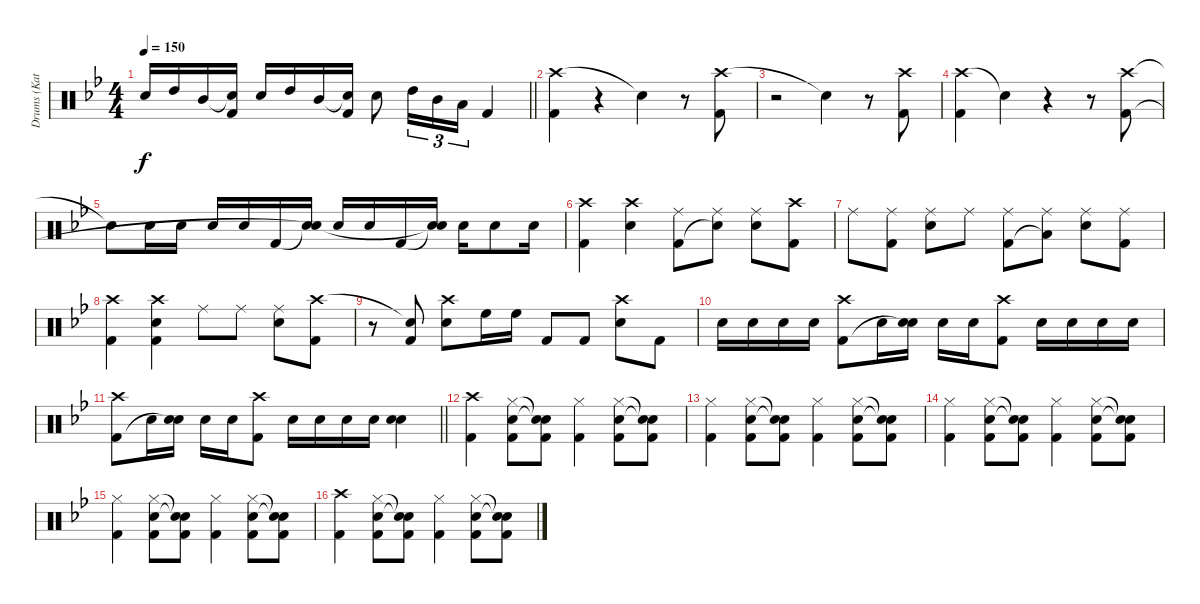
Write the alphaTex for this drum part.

\track ("Drums (Katsuji)" "Drums (Kat") {instrument percussion}
\staff {score}
\articulation defaults
\ts (4 4)
\tempo 150
\clef neutral
\barLineRight lightlight
\ks bb "Snare (hit) 2".16{dy f} "High Tom (hit)".16 "Mid Tom (hit)".16
("Snare (hit)"{t} "Kick (hit) 2").16 "Snare (hit) 2".16 "High Tom (hit)".16 "Mid Tom (hit)".16 ("Snare (hit)"{t} "Kick (hit) 2").16 "Snare (hit) 2".8 "High Tom (hit)".16{tu (3 2)} "Mid Tom (hit)".16{tu (3 2)} "Low Tom (hit)".16{tu (3 2)} "Kick (hit) 2".4 |
("Crash high (hit)" "Kick (hit) 2").4 r.4 "Snare (hit)"{t}.4 r.8 ("Crash high (hit)" "Kick (hit) 2").8 |
r.2 "Snare (hit)"{t}.4 r.8 ("Crash high (hit)" "Kick (hit) 2").8 |
("Crash high (hit)" "Kick (hit) 2").4 "Snare (hit)"{t}.4 r.4 r.8 ("Crash high (hit)" "Kick (hit) 2").8 |
"Snare (hit)"{t}.8 "Snare (hit) 2".16 "Snare (hit) 2".16 "Snare (hit) 2".16 "Snare (hit) 2".16 "Kick (hit) 2".16 ("Electric Snare (hit)"{t} "Snare (hit)"{t}).16 "Snare (hit) 2".16 "Snare (hit) 2".16 "Kick (hit) 2".16 ("Snare (hit)"{t} "Snare (hit)"{t}).16 "Snare (hit) 2".16 "Snare (hit) 2".8 "Snare (hit) 2".16 |
("Crash high (hit)" "Kick (hit) 2").4 ("Crash high (hit)" "Snare (hit) 2").4 ("Ride (middle)" "Kick (hit) 2").8 ("Ride (middle)" "Snare (hit)"{t}).8 ("Ride (middle)" "Snare (hit) 2").8 ("Crash high (hit)" "Kick (hit) 2").8 |
"Ride (middle)".8 ("Ride (middle)" "Kick (hit) 2").8 ("Ride (middle)" "Snare (hit) 2").8 "Ride (middle)".8 ("Ride (middle)" "Kick (hit) 2").8 ("Ride (middle)" "Low Floor Tom (hit)"{t}).8 ("Ride (middle)" "Snare (hit) 2").8 ("Ride (middle)" "Kick (hit) 2").8 |
("Crash high (hit)" "Kick (hit) 2").4 ("Crash high (hit)" "Snare (hit) 2" "Kick (hit) 2").4 "Ride (middle)".8 "Ride (middle)".8 ("Ride (middle)" "Snare (hit) 2").8 ("Crash high (hit)" "Kick (hit) 2").8 |
r.8 ("Snare (hit)"{t} "Kick (hit) 2").8 ("Crash high (hit)" "Snare (hit) 2").8 "High Floor Tom (hit)".16 "High Floor Tom (hit)".16 "Kick (hit) 2".8 "Kick (hit) 2".8 ("Crash high (hit)" "Snare (hit) 2").8 "Kick (hit) 2".8 |
"Snare (hit) 2".16 "Snare (hit) 2".16 "Snare (hit) 2".16 "Snare (hit) 2".16 ("Crash high (hit)" "Kick (hit) 2").8 "Snare (hit) 2".16 ("Snare (hit) 2" "Snare (hit)"{t}).16 "Snare (hit) 2".16 "Snare (hit) 2".16 ("Crash high (hit)" "Kick (hit) 2").8 "Snare (hit) 2".16 "Snare (hit) 2".16 "Snare (hit) 2".16 "Snare (hit) 2".16 |
\barLineRight lightlight
("Crash high (hit)" "Kick (hit) 2").8 "Snare (hit) 2".16 ("Snare (hit) 2" "Snare (hit)"{t}).16 "Snare (hit) 2".16 "Snare (hit) 2".16 ("Crash high (hit)" "Kick (hit) 2").8 "Snare (hit) 2".16 "Snare (hit) 2".16 "Snare (hit) 2".16 "Snare (hit) 2".16 ("Snare (hit) 2" "Snare (hit) 2").4 |
("Crash high (hit)" "Kick (hit) 2").4 ("Hi-Hat (closed)" "Snare (hit) 2" "Kick (hit) 2").8 ("Snare (hit)"{t} "Snare (hit)"{t} "Kick (hit) 2").8 ("Hi-Hat (closed)" "Kick (hit) 2").4 ("Hi-Hat (closed)" "Snare (hit) 2" "Kick (hit) 2").8 ("Snare (hit)"{t} "Snare (hit)"{t} "Kick (hit) 2").8 |
("Hi-Hat (closed)" "Kick (hit) 2").4 ("Hi-Hat (closed)" "Snare (hit) 2" "Kick (hit) 2").8 ("Snare (hit)"{t} "Snare (hit)"{t} "Kick (hit) 2").8 ("Hi-Hat (closed)" "Kick (hit) 2").4 ("Hi-Hat (closed)" "Snare (hit) 2" "Kick (hit) 2").8 ("Snare (hit)"{t} "Snare (hit)"{t} "Kick (hit) 2").8 |
("Hi-Hat (closed)" "Kick (hit) 2").4 ("Hi-Hat (closed)" "Snare (hit) 2" "Kick (hit) 2").8 ("Snare (hit)"{t} "Snare (hit)"{t} "Kick (hit) 2").8 ("Hi-Hat (closed)" "Kick (hit) 2").4 ("Hi-Hat (closed)" "Snare (hit) 2" "Kick (hit) 2").8 ("Snare (hit)"{t} "Snare (hit)"{t} "Kick (hit) 2").8 |
("Hi-Hat (closed)" "Kick (hit) 2").4 ("Hi-Hat (closed)" "Snare (hit) 2" "Kick (hit) 2").8 ("Snare (hit)"{t} "Snare (hit)"{t} "Kick (hit) 2").8 ("Hi-Hat (closed)" "Kick (hit) 2").4 ("Hi-Hat (closed)" "Snare (hit) 2" "Kick (hit) 2").8 ("Snare (hit)"{t} "Snare (hit)"{t} "Kick (hit) 2").8 |
("Crash high (hit)" "Kick (hit) 2").4 ("Hi-Hat (closed)" "Snare (hit) 2" "Kick (hit) 2").8 ("Snare (hit)"{t} "Snare (hit)"{t} "Kick (hit) 2").8 ("Hi-Hat (closed)" "Kick (hit) 2").4 ("Hi-Hat (closed)" "Snare (hit) 2" "Kick (hit) 2").8 ("Snare (hit)"{t} "Snare (hit)"{t} "Kick (hit) 2").8
